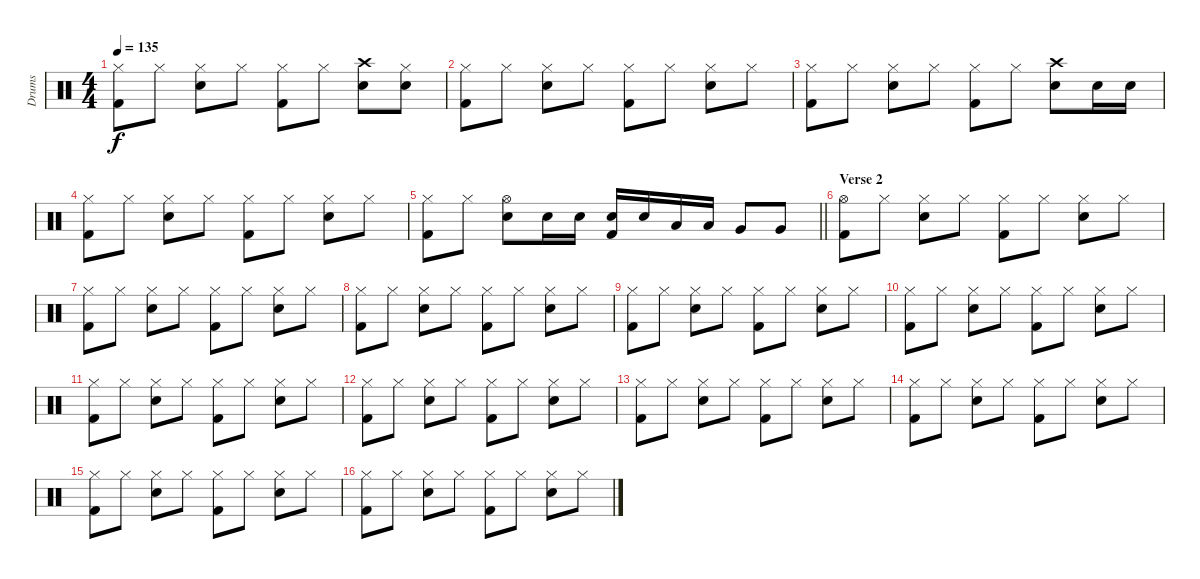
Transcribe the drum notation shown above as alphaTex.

\track ("Drums" "Drums") {instrument percussion}
\staff {score}
\articulation defaults
\ts (4 4)
\tempo 135
\clef neutral
\ks c
("Hi-Hat (closed)" "Kick (hit) 2").8{dy f} "Hi-Hat (closed)".8 ("Hi-Hat (closed)" "Snare (hit) 2").8 "Hi-Hat (closed)".8 ("Hi-Hat (closed)" "Kick (hit) 2").8 "Hi-Hat (closed)".8 ("Crash high (hit)" "Snare (hit) 2").8 ("Hi-Hat (closed)" "Snare (hit) 2").8 |
("Hi-Hat (closed)" "Kick (hit) 2").8 "Hi-Hat (closed)".8 ("Hi-Hat (closed)" "Snare (hit) 2").8 "Hi-Hat (closed)".8 ("Hi-Hat (closed)" "Kick (hit) 2").8 "Hi-Hat (closed)".8 ("Hi-Hat (closed)" "Snare (hit) 2").8 "Hi-Hat (closed)".8 |
("Hi-Hat (closed)" "Kick (hit) 2").8 "Hi-Hat (closed)".8 ("Hi-Hat (closed)" "Snare (hit) 2").8 "Hi-Hat (closed)".8 ("Hi-Hat (closed)" "Kick (hit) 2").8 "Hi-Hat (closed)".8 ("Crash high (hit)" "Snare (hit) 2").8 "Snare (hit) 2".16 "Snare (hit) 2".16 |
("Hi-Hat (closed)" "Kick (hit) 2").8 "Hi-Hat (closed)".8 ("Hi-Hat (closed)" "Snare (hit) 2").8 "Hi-Hat (closed)".8 ("Hi-Hat (closed)" "Kick (hit) 2").8 "Hi-Hat (closed)".8 ("Hi-Hat (closed)" "Snare (hit) 2").8 "Hi-Hat (closed)".8 |
\barLineRight lightlight
("Hi-Hat (closed)" "Kick (hit) 2").8 "Hi-Hat (closed)".8 ("Hi-Hat (open)" "Snare (hit) 2").8 "Snare (hit) 2".16 "Snare (hit) 2".16 ("Snare (hit) 2" "Kick (hit) 2").16 "Snare (hit) 2".16 "Low Tom (hit)".16 "Low Tom (hit)".16 "Very Low Tom (hit)".8 "Very Low Tom (hit)".8 |
\section ("" "Verse 2")
("Hi-Hat (open)" "Kick (hit) 2").8 "Hi-Hat (closed)".8 ("Hi-Hat (closed)" "Snare (hit) 2").8 "Hi-Hat (closed)".8 ("Hi-Hat (closed)" "Kick (hit) 2").8 "Hi-Hat (closed)".8 ("Hi-Hat (closed)" "Snare (hit) 2").8 "Hi-Hat (closed)".8 |
("Hi-Hat (closed)" "Kick (hit) 2").8 "Hi-Hat (closed)".8 ("Hi-Hat (closed)" "Snare (hit) 2").8 "Hi-Hat (closed)".8 ("Hi-Hat (closed)" "Kick (hit) 2").8 "Hi-Hat (closed)".8 ("Hi-Hat (closed)" "Snare (hit) 2").8 "Hi-Hat (closed)".8 |
("Hi-Hat (closed)" "Kick (hit) 2").8 "Hi-Hat (closed)".8 ("Hi-Hat (closed)" "Snare (hit) 2").8 "Hi-Hat (closed)".8 ("Hi-Hat (closed)" "Kick (hit) 2").8 "Hi-Hat (closed)".8 ("Hi-Hat (closed)" "Snare (hit) 2").8 "Hi-Hat (closed)".8 |
("Hi-Hat (closed)" "Kick (hit) 2").8 "Hi-Hat (closed)".8 ("Hi-Hat (closed)" "Snare (hit) 2").8 "Hi-Hat (closed)".8 ("Hi-Hat (closed)" "Kick (hit) 2").8 "Hi-Hat (closed)".8 ("Hi-Hat (closed)" "Snare (hit) 2").8 "Hi-Hat (closed)".8 |
("Hi-Hat (closed)" "Kick (hit) 2").8 "Hi-Hat (closed)".8 ("Hi-Hat (closed)" "Snare (hit) 2").8 "Hi-Hat (closed)".8 ("Hi-Hat (closed)" "Kick (hit) 2").8 "Hi-Hat (closed)".8 ("Hi-Hat (closed)" "Snare (hit) 2").8 "Hi-Hat (closed)".8 |
("Hi-Hat (closed)" "Kick (hit) 2").8 "Hi-Hat (closed)".8 ("Hi-Hat (closed)" "Snare (hit) 2").8 "Hi-Hat (closed)".8 ("Hi-Hat (closed)" "Kick (hit) 2").8 "Hi-Hat (closed)".8 ("Hi-Hat (closed)" "Snare (hit) 2").8 "Hi-Hat (closed)".8 |
("Hi-Hat (closed)" "Kick (hit) 2").8 "Hi-Hat (closed)".8 ("Hi-Hat (closed)" "Snare (hit) 2").8 "Hi-Hat (closed)".8 ("Hi-Hat (closed)" "Kick (hit) 2").8 "Hi-Hat (closed)".8 ("Hi-Hat (closed)" "Snare (hit) 2").8 "Hi-Hat (closed)".8 |
("Hi-Hat (closed)" "Kick (hit) 2").8 "Hi-Hat (closed)".8 ("Hi-Hat (closed)" "Snare (hit) 2").8 "Hi-Hat (closed)".8 ("Hi-Hat (closed)" "Kick (hit) 2").8 "Hi-Hat (closed)".8 ("Hi-Hat (closed)" "Snare (hit) 2").8 "Hi-Hat (closed)".8 |
("Hi-Hat (closed)" "Kick (hit) 2").8 "Hi-Hat (closed)".8 ("Hi-Hat (closed)" "Snare (hit) 2").8 "Hi-Hat (closed)".8 ("Hi-Hat (closed)" "Kick (hit) 2").8 "Hi-Hat (closed)".8 ("Hi-Hat (closed)" "Snare (hit) 2").8 "Hi-Hat (closed)".8 |
("Hi-Hat (closed)" "Kick (hit) 2").8 "Hi-Hat (closed)".8 ("Hi-Hat (closed)" "Snare (hit) 2").8 "Hi-Hat (closed)".8 ("Hi-Hat (closed)" "Kick (hit) 2").8 "Hi-Hat (closed)".8 ("Hi-Hat (closed)" "Snare (hit) 2").8 "Hi-Hat (closed)".8 |
("Hi-Hat (closed)" "Kick (hit) 2").8 "Hi-Hat (closed)".8 ("Hi-Hat (closed)" "Snare (hit) 2").8 "Hi-Hat (closed)".8 ("Hi-Hat (closed)" "Kick (hit) 2").8 "Hi-Hat (closed)".8 ("Hi-Hat (closed)" "Snare (hit) 2").8 "Hi-Hat (closed)".8
